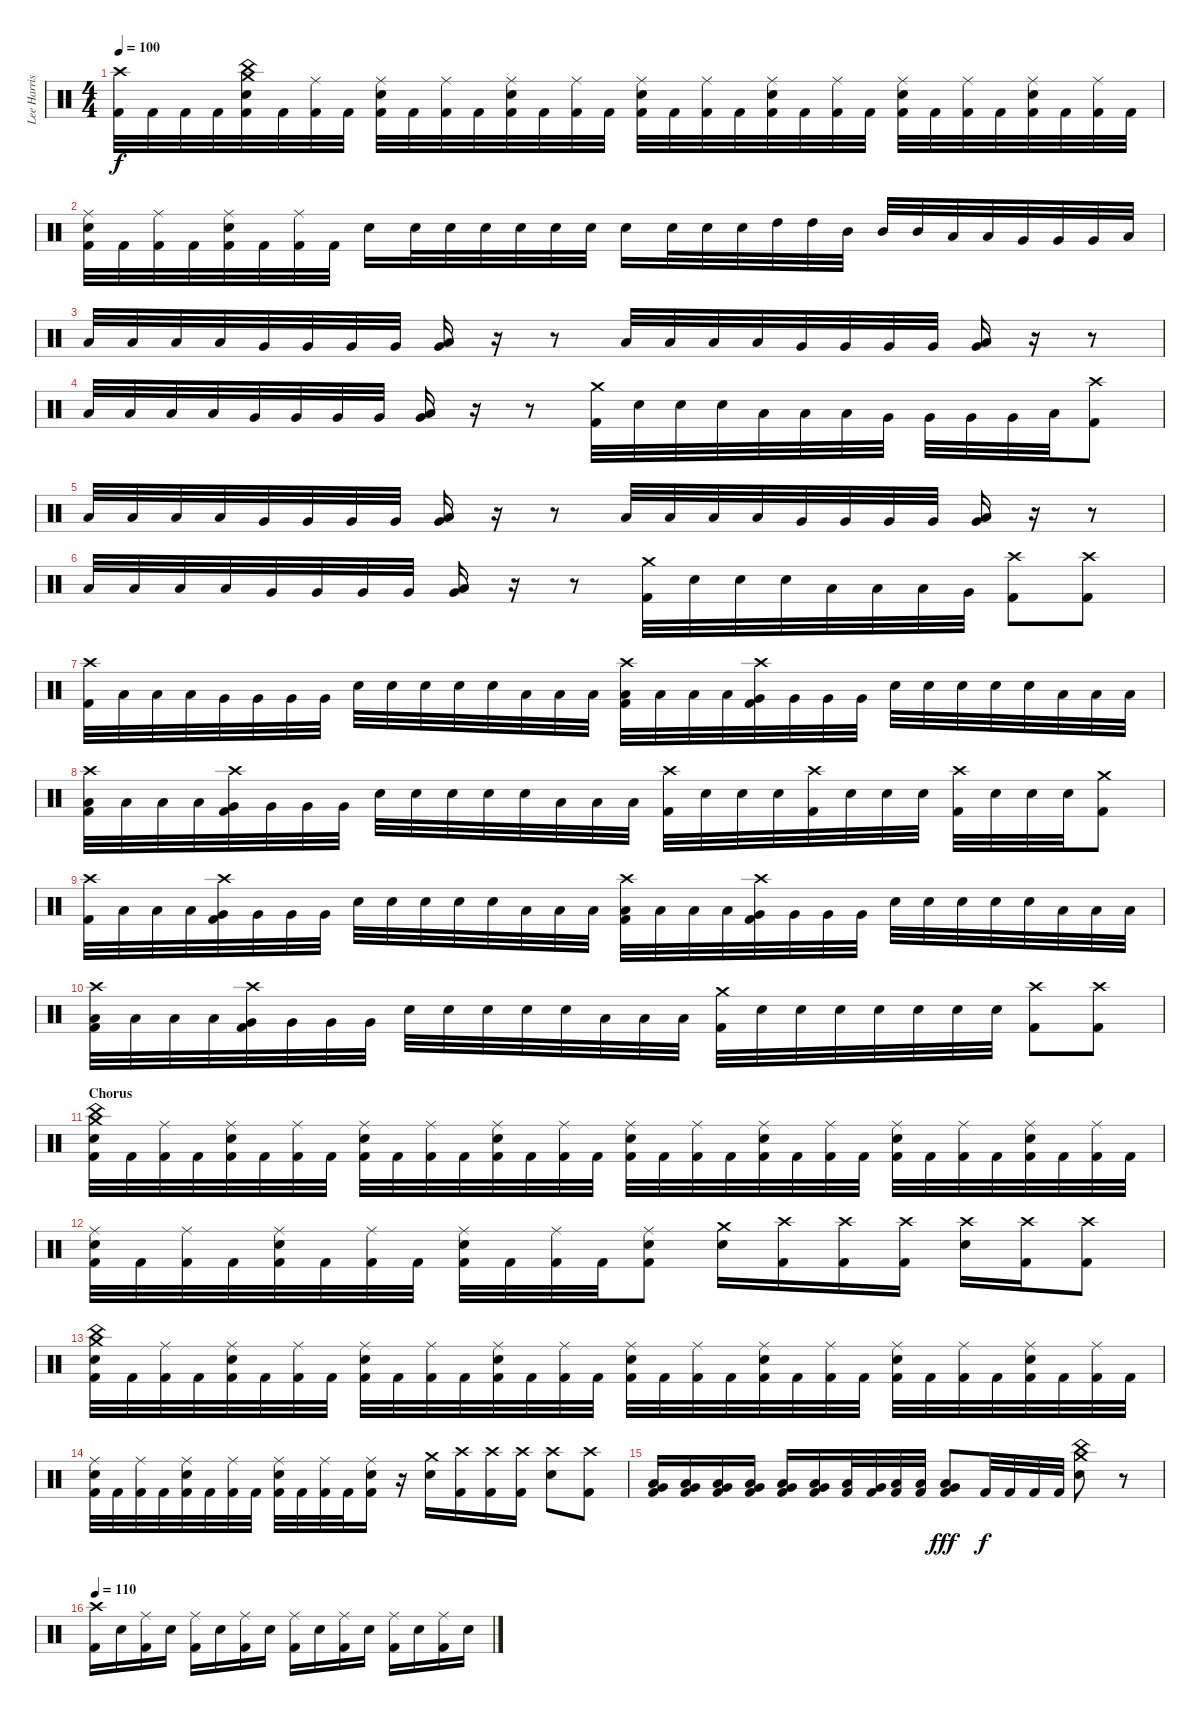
\track ("Lee Harrison" "Lee Harris") {instrument percussion}
\staff {score}
\articulation defaults
\ts (4 4)
\tempo 100
\clef neutral
\ks c
("Crash high (hit)" "Kick (hit) 2").32{dy f} "Kick (hit) 2".32 "Kick (hit) 2".32 "Kick (hit) 2".32 ("Crash medium (hit)" "China (hit)" "Electric Snare (hit)" "Kick (hit) 2").32 "Kick (hit) 2".32 ("Ride (middle)" "Kick (hit) 2").32 "Kick (hit) 2".32 ("Ride (middle)" "Electric Snare (hit)" "Kick (hit) 2").32 "Kick (hit) 2".32 ("Ride (middle)" "Kick (hit) 2").32 "Kick (hit) 2".32 ("Ride (middle)" "Electric Snare (hit)" "Kick (hit) 2").32 "Kick (hit) 2".32 ("Ride (middle)" "Kick (hit) 2").32 "Kick (hit) 2".32 ("Ride (middle)" "Electric Snare (hit)" "Kick (hit) 2").32 "Kick (hit) 2".32 ("Ride (middle)" "Kick (hit) 2").32 "Kick (hit) 2".32 ("Ride (middle)" "Electric Snare (hit)" "Kick (hit) 2").32 "Kick (hit) 2".32 ("Ride (middle)" "Kick (hit) 2").32 "Kick (hit) 2".32 ("Ride (middle)" "Electric Snare (hit)" "Kick (hit) 2").32 "Kick (hit) 2".32 ("Ride (middle)" "Kick (hit) 2").32 "Kick (hit) 2".32 ("Ride (middle)" "Electric Snare (hit)" "Kick (hit) 2").32 "Kick (hit) 2".32 ("Ride (middle)" "Kick (hit) 2").32 "Kick (hit) 2".32 |
("Ride (middle)" "Electric Snare (hit)" "Kick (hit) 2").32 "Kick (hit) 2".32 ("Ride (middle)" "Kick (hit) 2").32 "Kick (hit) 2".32 ("Ride (middle)" "Electric Snare (hit)" "Kick (hit) 2").32 "Kick (hit) 2".32 ("Ride (middle)" "Kick (hit) 2").32 "Kick (hit) 2".32 "Electric Snare (hit)".16 "Electric Snare (hit)".32 "Electric Snare (hit)".32 "Electric Snare (hit)".32 "Electric Snare (hit)".32 "Electric Snare (hit)".32 "Electric Snare (hit)".32 "Electric Snare (hit)".16 "Electric Snare (hit)".32 "Electric Snare (hit)".32 "Electric Snare (hit)".32 "High Tom (hit)".32 "High Tom (hit)".32 "Mid Tom (hit)".32 "Mid Tom (hit)".32 "Mid Tom (hit)".32 "Low Tom (hit)".32 "Low Tom (hit)".32 "Very Low Tom (hit)".32 "Very Low Tom (hit)".32 "Very Low Tom (hit)".32 "Low Floor Tom (hit)".32 |
\section ("" "")
"Low Tom (hit)".32 "Low Tom (hit)".32 "Low Tom (hit)".32 "Low Tom (hit)".32 "Very Low Tom (hit)".32 "Very Low Tom (hit)".32 "Very Low Tom (hit)".32 "Very Low Tom (hit)".32 ("Very Low Tom (hit)" "Low Floor Tom (hit)").16 r.16 r.8 "Low Tom (hit)".32 "Low Tom (hit)".32 "Low Tom (hit)".32 "Low Tom (hit)".32 "Very Low Tom (hit)".32 "Very Low Tom (hit)".32 "Very Low Tom (hit)".32 "Very Low Tom (hit)".32 ("Very Low Tom (hit)" "Low Floor Tom (hit)").16 r.16 r.8 |
"Low Tom (hit)".32 "Low Tom (hit)".32 "Low Tom (hit)".32 "Low Tom (hit)".32 "Very Low Tom (hit)".32 "Very Low Tom (hit)".32 "Very Low Tom (hit)".32 "Very Low Tom (hit)".32 ("Very Low Tom (hit)" "Low Floor Tom (hit)").16 r.16 r.8 ("Crash medium (hit)" "Kick (hit) 2").32 "Electric Snare (hit)".32 "Electric Snare (hit)".32 "Electric Snare (hit)".32 "Low Tom (hit)".32 "Low Tom (hit)".32 "Low Tom (hit)".32 "Very Low Tom (hit)".32 "Very Low Tom (hit)".32 "Very Low Tom (hit)".32 "Very Low Tom (hit)".32 "Low Floor Tom (hit)".32 ("Crash high (hit)" "Kick (hit) 2").8 |
"Low Tom (hit)".32 "Low Tom (hit)".32 "Low Tom (hit)".32 "Low Tom (hit)".32 "Very Low Tom (hit)".32 "Very Low Tom (hit)".32 "Very Low Tom (hit)".32 "Very Low Tom (hit)".32 ("Very Low Tom (hit)" "Low Floor Tom (hit)").16 r.16 r.8 "Low Tom (hit)".32 "Low Tom (hit)".32 "Low Tom (hit)".32 "Low Tom (hit)".32 "Very Low Tom (hit)".32 "Very Low Tom (hit)".32 "Very Low Tom (hit)".32 "Very Low Tom (hit)".32 ("Very Low Tom (hit)" "Low Floor Tom (hit)").16 r.16 r.8 |
"Low Tom (hit)".32 "Low Tom (hit)".32 "Low Tom (hit)".32 "Low Tom (hit)".32 "Very Low Tom (hit)".32 "Very Low Tom (hit)".32 "Very Low Tom (hit)".32 "Very Low Tom (hit)".32 ("Very Low Tom (hit)" "Low Floor Tom (hit)").16 r.16 r.8 ("Crash medium (hit)" "Kick (hit) 2").32 "Electric Snare (hit)".32 "Electric Snare (hit)".32 "Electric Snare (hit)".32 "Low Tom (hit)".32 "Low Tom (hit)".32 "Low Tom (hit)".32 "Very Low Tom (hit)".32 ("Crash high (hit)" "Kick (hit) 2").8 ("Crash high (hit)" "Kick (hit) 2").8 |
("Crash high (hit)" "Kick (hit) 2").32 "Low Tom (hit)".32 "Low Tom (hit)".32 "Low Tom (hit)".32 "Very Low Tom (hit)".32 "Very Low Tom (hit)".32 "Very Low Tom (hit)".32 "Very Low Tom (hit)".32 "Electric Snare (hit)".32 "Electric Snare (hit)".32 "Electric Snare (hit)".32 "Electric Snare (hit)".32 "Electric Snare (hit)".32 "Low Floor Tom (hit)".32 "Low Floor Tom (hit)".32 "Low Floor Tom (hit)".32 ("Crash high (hit)" "Low Tom (hit)" "Kick (hit) 2").32 "Low Tom (hit)".32 "Low Tom (hit)".32 "Low Tom (hit)".32 ("Crash high (hit)" "Very Low Tom (hit)" "Kick (hit) 2").32 "Very Low Tom (hit)".32 "Very Low Tom (hit)".32 "Very Low Tom (hit)".32 "Electric Snare (hit)".32 "Electric Snare (hit)".32 "Electric Snare (hit)".32 "Electric Snare (hit)".32 "Electric Snare (hit)".32 "Low Floor Tom (hit)".32 "Low Floor Tom (hit)".32 "Low Floor Tom (hit)".32 |
("Crash high (hit)" "Low Tom (hit)" "Kick (hit) 2").32 "Low Tom (hit)".32 "Low Tom (hit)".32 "Low Tom (hit)".32 ("Crash high (hit)" "Very Low Tom (hit)" "Kick (hit) 2").32 "Very Low Tom (hit)".32 "Very Low Tom (hit)".32 "Very Low Tom (hit)".32 "Electric Snare (hit)".32 "Electric Snare (hit)".32 "Electric Snare (hit)".32 "Electric Snare (hit)".32 "Electric Snare (hit)".32 "Low Floor Tom (hit)".32 "Low Floor Tom (hit)".32 "Low Floor Tom (hit)".32 ("Crash high (hit)" "Kick (hit) 2").32 "Electric Snare (hit)".32 "Electric Snare (hit)".32 "Electric Snare (hit)".32 ("Crash high (hit)" "Kick (hit) 2").32 "Electric Snare (hit)".32 "Electric Snare (hit)".32 "Electric Snare (hit)".32 ("Crash high (hit)" "Kick (hit) 2").32 "Electric Snare (hit)".32 "Electric Snare (hit)".32 "Electric Snare (hit)".32 ("Crash medium (hit)" "Kick (hit) 2").8 |
("Crash high (hit)" "Kick (hit) 2").32 "Low Tom (hit)".32 "Low Tom (hit)".32 "Low Tom (hit)".32 ("Crash high (hit)" "Very Low Tom (hit)" "Kick (hit) 2").32 "Very Low Tom (hit)".32 "Very Low Tom (hit)".32 "Very Low Tom (hit)".32 "Electric Snare (hit)".32 "Electric Snare (hit)".32 "Electric Snare (hit)".32 "Electric Snare (hit)".32 "Electric Snare (hit)".32 "Low Floor Tom (hit)".32 "Low Floor Tom (hit)".32 "Low Floor Tom (hit)".32 ("Crash high (hit)" "Low Tom (hit)" "Kick (hit) 2").32 "Low Tom (hit)".32 "Low Tom (hit)".32 "Low Tom (hit)".32 ("Crash high (hit)" "Very Low Tom (hit)" "Kick (hit) 2").32 "Very Low Tom (hit)".32 "Very Low Tom (hit)".32 "Very Low Tom (hit)".32 "Electric Snare (hit)".32 "Electric Snare (hit)".32 "Electric Snare (hit)".32 "Electric Snare (hit)".32 "Electric Snare (hit)".32 "Low Floor Tom (hit)".32 "Low Floor Tom (hit)".32 "Low Floor Tom (hit)".32 |
("Crash high (hit)" "Low Tom (hit)" "Kick (hit) 2").32 "Low Tom (hit)".32 "Low Tom (hit)".32 "Low Tom (hit)".32 ("Crash high (hit)" "Very Low Tom (hit)" "Kick (hit) 2").32 "Very Low Tom (hit)".32 "Very Low Tom (hit)".32 "Very Low Tom (hit)".32 "Electric Snare (hit)".32 "Electric Snare (hit)".32 "Electric Snare (hit)".32 "Electric Snare (hit)".32 "Electric Snare (hit)".32 "Low Floor Tom (hit)".32 "Low Floor Tom (hit)".32 "Low Floor Tom (hit)".32 ("Crash medium (hit)" "Kick (hit) 2").32 "Electric Snare (hit)".32 "Electric Snare (hit)".32 "Electric Snare (hit)".32 "Electric Snare (hit)".32 "Electric Snare (hit)".32 "Electric Snare (hit)".32 "Electric Snare (hit)".32 ("Crash high (hit)" "Kick (hit) 2").8 ("Crash high (hit)" "Kick (hit) 2").8 |
\section ("" "Chorus")
("Crash medium (hit)" "China (hit)" "Electric Snare (hit)" "Kick (hit) 2").32 "Kick (hit) 2".32 ("Ride (middle)" "Kick (hit) 2").32 "Kick (hit) 2".32 ("Ride (middle)" "Electric Snare (hit)" "Kick (hit) 2").32 "Kick (hit) 2".32 ("Ride (middle)" "Kick (hit) 2").32 "Kick (hit) 2".32 ("Ride (middle)" "Electric Snare (hit)" "Kick (hit) 2").32 "Kick (hit) 2".32 ("Ride (middle)" "Kick (hit) 2").32 "Kick (hit) 2".32 ("Ride (middle)" "Electric Snare (hit)" "Kick (hit) 2").32 "Kick (hit) 2".32 ("Ride (middle)" "Kick (hit) 2").32 "Kick (hit) 2".32 ("Ride (middle)" "Electric Snare (hit)" "Kick (hit) 2").32 "Kick (hit) 2".32 ("Ride (middle)" "Kick (hit) 2").32 "Kick (hit) 2".32 ("Ride (middle)" "Electric Snare (hit)" "Kick (hit) 2").32 "Kick (hit) 2".32 ("Ride (middle)" "Kick (hit) 2").32 "Kick (hit) 2".32 ("Ride (middle)" "Electric Snare (hit)" "Kick (hit) 2").32 "Kick (hit) 2".32 ("Ride (middle)" "Kick (hit) 2").32 "Kick (hit) 2".32 ("Ride (middle)" "Electric Snare (hit)" "Kick (hit) 2").32 "Kick (hit) 2".32 ("Ride (middle)" "Kick (hit) 2").32 "Kick (hit) 2".32 |
("Ride (middle)" "Electric Snare (hit)" "Kick (hit) 2").32 "Kick (hit) 2".32 ("Ride (middle)" "Kick (hit) 2").32 "Kick (hit) 2".32 ("Ride (middle)" "Electric Snare (hit)" "Kick (hit) 2").32 "Kick (hit) 2".32 ("Ride (middle)" "Kick (hit) 2").32 "Kick (hit) 2".32 ("Ride (middle)" "Electric Snare (hit)" "Kick (hit) 2").32 "Kick (hit) 2".32 ("Ride (middle)" "Kick (hit) 2").32 "Kick (hit) 2".32 ("Ride (middle)" "Electric Snare (hit)" "Kick (hit) 2").8 ("Crash medium (hit)" "Electric Snare (hit)").16 ("Crash high (hit)" "Kick (hit) 2").16 ("Crash high (hit)" "Kick (hit) 2").16 ("Crash high (hit)" "Kick (hit) 2").16 ("Crash high (hit)" "Electric Snare (hit)").16 ("Crash high (hit)" "Kick (hit) 2").16 ("Crash high (hit)" "Kick (hit) 2").8 |
("Crash medium (hit)" "China (hit)" "Electric Snare (hit)" "Kick (hit) 2").32 "Kick (hit) 2".32 ("Ride (middle)" "Kick (hit) 2").32 "Kick (hit) 2".32 ("Ride (middle)" "Electric Snare (hit)" "Kick (hit) 2").32 "Kick (hit) 2".32 ("Ride (middle)" "Kick (hit) 2").32 "Kick (hit) 2".32 ("Ride (middle)" "Electric Snare (hit)" "Kick (hit) 2").32 "Kick (hit) 2".32 ("Ride (middle)" "Kick (hit) 2").32 "Kick (hit) 2".32 ("Ride (middle)" "Electric Snare (hit)" "Kick (hit) 2").32 "Kick (hit) 2".32 ("Ride (middle)" "Kick (hit) 2").32 "Kick (hit) 2".32 ("Ride (middle)" "Electric Snare (hit)" "Kick (hit) 2").32 "Kick (hit) 2".32 ("Ride (middle)" "Kick (hit) 2").32 "Kick (hit) 2".32 ("Ride (middle)" "Electric Snare (hit)" "Kick (hit) 2").32 "Kick (hit) 2".32 ("Ride (middle)" "Kick (hit) 2").32 "Kick (hit) 2".32 ("Ride (middle)" "Electric Snare (hit)" "Kick (hit) 2").32 "Kick (hit) 2".32 ("Ride (middle)" "Kick (hit) 2").32 "Kick (hit) 2".32 ("Ride (middle)" "Electric Snare (hit)" "Kick (hit) 2").32 "Kick (hit) 2".32 ("Ride (middle)" "Kick (hit) 2").32 "Kick (hit) 2".32 |
("Ride (middle)" "Electric Snare (hit)" "Kick (hit) 2").32 "Kick (hit) 2".32 ("Ride (middle)" "Kick (hit) 2").32 "Kick (hit) 2".32 ("Ride (middle)" "Electric Snare (hit)" "Kick (hit) 2").32 "Kick (hit) 2".32 ("Ride (middle)" "Kick (hit) 2").32 "Kick (hit) 2".32 ("Ride (middle)" "Electric Snare (hit)" "Kick (hit) 2").32 "Kick (hit) 2".32 ("Ride (middle)" "Kick (hit) 2").32 "Kick (hit) 2".32 ("Ride (middle)" "Electric Snare (hit)" "Kick (hit) 2").16 r.16 ("Crash medium (hit)" "Electric Snare (hit)").16 ("Crash high (hit)" "Kick (hit) 2").16 ("Crash high (hit)" "Kick (hit) 2").16 ("Crash high (hit)" "Kick (hit) 2").16 ("Crash high (hit)" "Electric Snare (hit)").8 ("Crash high (hit)" "Kick (hit) 2").8 |
("Low Tom (hit)" "Very Low Tom (hit)" "Kick (hit) 2").16 ("Very Low Tom (hit)" "Low Floor Tom (hit)" "Kick (hit) 2").16 ("Low Tom (hit)" "Very Low Tom (hit)" "Kick (hit) 2").16 ("Very Low Tom (hit)" "Low Floor Tom (hit)" "Kick (hit) 2").16 ("Low Tom (hit)" "Very Low Tom (hit)" "Kick (hit) 2").16 ("Very Low Tom (hit)" "Low Floor Tom (hit)" "Kick (hit) 2").16 ("Low Tom (hit)" "Kick (hit) 2").32 ("Very Low Tom (hit)" "Kick (hit) 2").32 ("Low Floor Tom (hit)" "Kick (hit) 2").32 ("Low Floor Tom (hit)" "Kick (hit) 2").32 ("Very Low Tom (hit)" "Low Floor Tom (hit)" "Kick (hit) 2").8{dy fff} "Kick (hit) 2".32{dy f} "Kick (hit) 2".32 "Kick (hit) 2".32 "Kick (hit) 2".32 ("China (hit)" "Crash medium (hit)" "Electric Snare (hit)").8 r.8 |
\section ("" "")
\tempo 110
("Crash high (hit)" "Kick (hit) 2").16 "Electric Snare (hit)".16 ("Ride (middle)" "Kick (hit) 2").16 "Electric Snare (hit)".16 ("Ride (middle)" "Kick (hit) 2").16 "Electric Snare (hit)".16 ("Ride (middle)" "Kick (hit) 2").16 "Electric Snare (hit)".16 ("Ride (middle)" "Kick (hit) 2").16 "Electric Snare (hit)".16 ("Ride (middle)" "Kick (hit) 2").16 "Electric Snare (hit)".16 ("Ride (middle)" "Kick (hit) 2").16 "Electric Snare (hit)".16 ("Ride (middle)" "Kick (hit) 2").16 "Electric Snare (hit)".16
